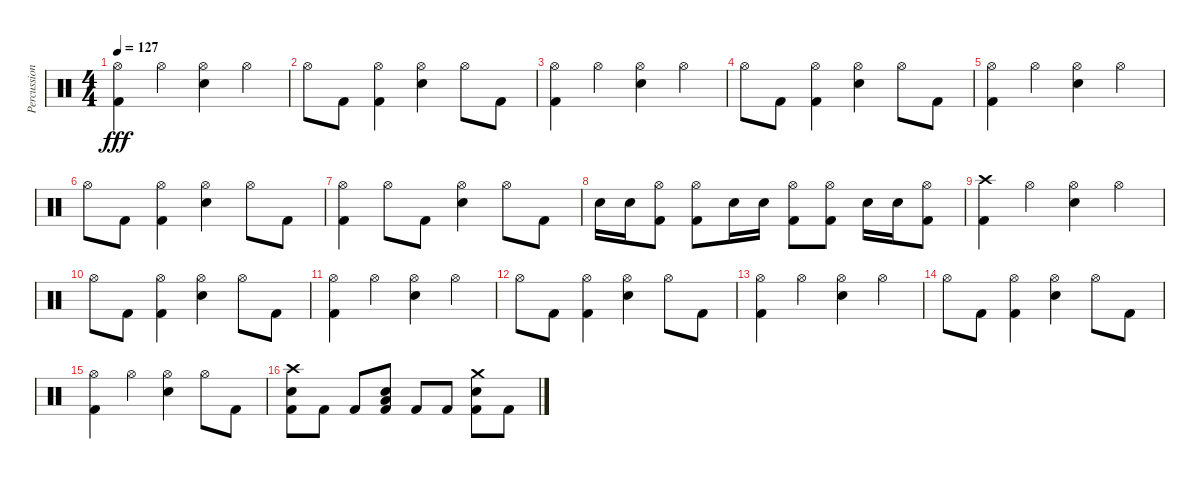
\track ("Percussion" "Percussion") {instrument percussion}
\staff {score}
\articulation defaults
\ts (4 4)
\tempo 127
\clef neutral
\ks c
("Hi-Hat (open)" "Kick (hit) 2").4{dy fff} "Hi-Hat (open)".4 ("Hi-Hat (open)" "Snare (hit) 2").4 "Hi-Hat (open)".4 |
"Hi-Hat (open)".8 "Kick (hit) 2".8 ("Hi-Hat (open)" "Kick (hit) 2").4 ("Hi-Hat (open)" "Snare (hit) 2").4 "Hi-Hat (open)".8 "Kick (hit) 2".8 |
("Hi-Hat (open)" "Kick (hit) 2").4 "Hi-Hat (open)".4 ("Hi-Hat (open)" "Snare (hit) 2").4 "Hi-Hat (open)".4 |
"Hi-Hat (open)".8 "Kick (hit) 2".8 ("Hi-Hat (open)" "Kick (hit) 2").4 ("Hi-Hat (open)" "Snare (hit) 2").4 "Hi-Hat (open)".8 "Kick (hit) 2".8 |
("Hi-Hat (open)" "Kick (hit) 2").4 "Hi-Hat (open)".4 ("Hi-Hat (open)" "Snare (hit) 2").4 "Hi-Hat (open)".4 |
"Hi-Hat (open)".8 "Kick (hit) 2".8 ("Hi-Hat (open)" "Kick (hit) 2").4 ("Hi-Hat (open)" "Snare (hit) 2").4 "Hi-Hat (open)".8 "Kick (hit) 2".8 |
("Hi-Hat (open)" "Kick (hit) 2").4 "Hi-Hat (open)".8 "Kick (hit) 2".8 ("Hi-Hat (open)" "Snare (hit) 2").4 "Hi-Hat (open)".8 "Kick (hit) 2".8 |
"Snare (hit) 2".16 "Snare (hit) 2".16 ("Hi-Hat (open)" "Kick (hit) 2").8 ("Hi-Hat (open)" "Kick (hit) 2").8 "Snare (hit) 2".16 "Snare (hit) 2".16 ("Hi-Hat (open)" "Kick (hit) 2").8 ("Hi-Hat (open)" "Kick (hit) 2").8 "Snare (hit) 2".16 "Snare (hit) 2".16 ("Hi-Hat (open)" "Kick (hit) 2").8 |
("Crash high (hit)" "Kick (hit) 2").4 "Hi-Hat (open)".4 ("Hi-Hat (open)" "Snare (hit) 2").4 "Hi-Hat (open)".4 |
"Hi-Hat (open)".8 "Kick (hit) 2".8 ("Hi-Hat (open)" "Kick (hit) 2").4 ("Hi-Hat (open)" "Snare (hit) 2").4 "Hi-Hat (open)".8 "Kick (hit) 2".8 |
("Hi-Hat (open)" "Kick (hit) 2").4 "Hi-Hat (open)".4 ("Hi-Hat (open)" "Snare (hit) 2").4 "Hi-Hat (open)".4 |
"Hi-Hat (open)".8 "Kick (hit) 2".8 ("Hi-Hat (open)" "Kick (hit) 2").4 ("Hi-Hat (open)" "Snare (hit) 2").4 "Hi-Hat (open)".8 "Kick (hit) 2".8 |
("Hi-Hat (open)" "Kick (hit) 2").4 "Hi-Hat (open)".4 ("Hi-Hat (open)" "Snare (hit) 2").4 "Hi-Hat (open)".4 |
"Hi-Hat (open)".8 "Kick (hit) 2".8 ("Hi-Hat (open)" "Kick (hit) 2").4 ("Hi-Hat (open)" "Snare (hit) 2").4 "Hi-Hat (open)".8 "Kick (hit) 2".8 |
("Hi-Hat (open)" "Kick (hit) 2").4 "Hi-Hat (open)".4 ("Hi-Hat (open)" "Snare (hit) 2").4 "Hi-Hat (open)".8 "Kick (hit) 2".8 |
("Crash high (hit)" "Snare (hit) 2" "Kick (hit) 2").8 "Kick (hit) 2".8 "Kick (hit) 2".8 ("Snare (hit) 2" "Low Tom (hit)" "Kick (hit) 2").8 "Kick (hit) 2".8 "Kick (hit) 2".8 ("Crash medium (hit)" "Snare (hit) 2" "Kick (hit) 2").8 "Kick (hit) 2".8
